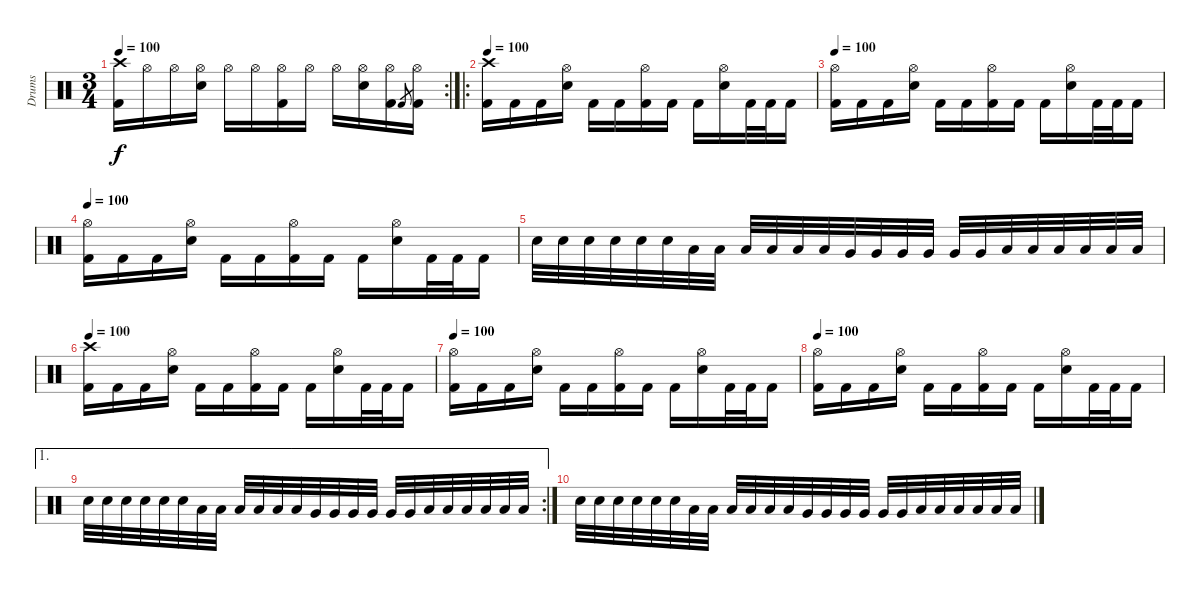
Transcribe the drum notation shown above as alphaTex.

\track ("Drums" "Drums") {instrument percussion}
\staff {score}
\articulation defaults
\rc 2
\ts (3 4)
\tempo 100
\clef neutral
\ks c
("Crash high (hit)" "Kick (hit) 2").16{dy f} "Hi-Hat (open)".16 "Hi-Hat (open)".16 ("Hi-Hat (open)" "Electric Snare (hit)").16 "Hi-Hat (open)".16 "Hi-Hat (open)".16 ("Hi-Hat (open)" "Kick (hit) 2").16 "Hi-Hat (open)".16 "Hi-Hat (open)".16 ("Hi-Hat (open)" "Electric Snare (hit)").16 ("Hi-Hat (open)" "Kick (hit) 2").16 "Kick (hit) 2".8{gr} ("Hi-Hat (open)" "Kick (hit) 2").16 |
\ro
\tempo 100
("Crash high (hit)" "Kick (hit) 2").16 "Kick (hit) 2".16 "Kick (hit) 2".16 ("Hi-Hat (open)" "Electric Snare (hit)").16 "Kick (hit) 2".16 "Kick (hit) 2".16 ("Hi-Hat (open)" "Kick (hit) 2").16 "Kick (hit) 2".16 "Kick (hit) 2".16 ("Hi-Hat (open)" "Electric Snare (hit)").16 "Kick (hit) 2".32 "Kick (hit) 2".32 "Kick (hit) 2".16 |
\tempo 100
("Hi-Hat (open)" "Kick (hit) 2").16 "Kick (hit) 2".16 "Kick (hit) 2".16 ("Hi-Hat (open)" "Electric Snare (hit)").16 "Kick (hit) 2".16 "Kick (hit) 2".16 ("Hi-Hat (open)" "Kick (hit) 2").16 "Kick (hit) 2".16 "Kick (hit) 2".16 ("Hi-Hat (open)" "Electric Snare (hit)").16 "Kick (hit) 2".32 "Kick (hit) 2".32 "Kick (hit) 2".16 |
\tempo 100
("Hi-Hat (open)" "Kick (hit) 2").16 "Kick (hit) 2".16 "Kick (hit) 2".16 ("Hi-Hat (open)" "Electric Snare (hit)").16 "Kick (hit) 2".16 "Kick (hit) 2".16 ("Hi-Hat (open)" "Kick (hit) 2").16 "Kick (hit) 2".16 "Kick (hit) 2".16 ("Hi-Hat (open)" "Electric Snare (hit)").16 "Kick (hit) 2".32 "Kick (hit) 2".32 "Kick (hit) 2".16 |
"Electric Snare (hit)".32 "Electric Snare (hit)".32 "Electric Snare (hit)".32 "Electric Snare (hit)".32 "Electric Snare (hit)".32 "Electric Snare (hit)".32 "Low Tom (hit)".32 "Low Tom (hit)".32 "Low Tom (hit)".32 "Low Tom (hit)".32 "Low Tom (hit)".32 "Low Tom (hit)".32 "Very Low Tom (hit)".32 "Very Low Tom (hit)".32 "Very Low Tom (hit)".32 "Very Low Tom (hit)".32 "Very Low Tom (hit)".32 "Very Low Tom (hit)".32 "Low Floor Tom (hit)".32 "Low Floor Tom (hit)".32 "Low Floor Tom (hit)".32 "Low Floor Tom (hit)".32 "Low Floor Tom (hit)".32 "Low Floor Tom (hit)".32 |
\tempo 100
("Crash high (hit)" "Kick (hit) 2").16 "Kick (hit) 2".16 "Kick (hit) 2".16 ("Hi-Hat (open)" "Electric Snare (hit)").16 "Kick (hit) 2".16 "Kick (hit) 2".16 ("Hi-Hat (open)" "Kick (hit) 2").16 "Kick (hit) 2".16 "Kick (hit) 2".16 ("Hi-Hat (open)" "Electric Snare (hit)").16 "Kick (hit) 2".32 "Kick (hit) 2".32 "Kick (hit) 2".16 |
\tempo 100
("Hi-Hat (open)" "Kick (hit) 2").16 "Kick (hit) 2".16 "Kick (hit) 2".16 ("Hi-Hat (open)" "Electric Snare (hit)").16 "Kick (hit) 2".16 "Kick (hit) 2".16 ("Hi-Hat (open)" "Kick (hit) 2").16 "Kick (hit) 2".16 "Kick (hit) 2".16 ("Hi-Hat (open)" "Electric Snare (hit)").16 "Kick (hit) 2".32 "Kick (hit) 2".32 "Kick (hit) 2".16 |
\tempo 100
("Hi-Hat (open)" "Kick (hit) 2").16 "Kick (hit) 2".16 "Kick (hit) 2".16 ("Hi-Hat (open)" "Electric Snare (hit)").16 "Kick (hit) 2".16 "Kick (hit) 2".16 ("Hi-Hat (open)" "Kick (hit) 2").16 "Kick (hit) 2".16 "Kick (hit) 2".16 ("Hi-Hat (open)" "Electric Snare (hit)").16 "Kick (hit) 2".32 "Kick (hit) 2".32 "Kick (hit) 2".16 |
\ae 1
\rc 2 "Electric Snare (hit)".32 "Electric Snare (hit)".32 "Electric Snare (hit)".32 "Electric Snare (hit)".32 "Electric Snare (hit)".32 "Electric Snare (hit)".32 "Low Tom (hit)".32 "Low Tom (hit)".32 "Low Tom (hit)".32 "Low Tom (hit)".32 "Low Tom (hit)".32 "Low Tom (hit)".32 "Very Low Tom (hit)".32 "Very Low Tom (hit)".32 "Very Low Tom (hit)".32 "Very Low Tom (hit)".32 "Very Low Tom (hit)".32 "Very Low Tom (hit)".32 "Low Floor Tom (hit)".32 "Low Floor Tom (hit)".32 "Low Floor Tom (hit)".32 "Low Floor Tom (hit)".32 "Low Floor Tom (hit)".32 "Low Floor Tom (hit)".32
|
"Electric Snare (hit)".32 "Electric Snare (hit)".32 "Electric Snare (hit)".32 "Electric Snare (hit)".32 "Electric Snare (hit)".32 "Electric Snare (hit)".32 "Low Tom (hit)".32 "Low Tom (hit)".32 "Low Tom (hit)".32 "Low Tom (hit)".32 "Low Tom (hit)".32 "Low Tom (hit)".32 "Very Low Tom (hit)".32 "Very Low Tom (hit)".32 "Very Low Tom (hit)".32 "Very Low Tom (hit)".32 "Very Low Tom (hit)".32 "Very Low Tom (hit)".32 "Low Floor Tom (hit)".32 "Low Floor Tom (hit)".32 "Low Floor Tom (hit)".32 "Low Floor Tom (hit)".32 "Low Floor Tom (hit)".32 "Low Floor Tom (hit)".32
